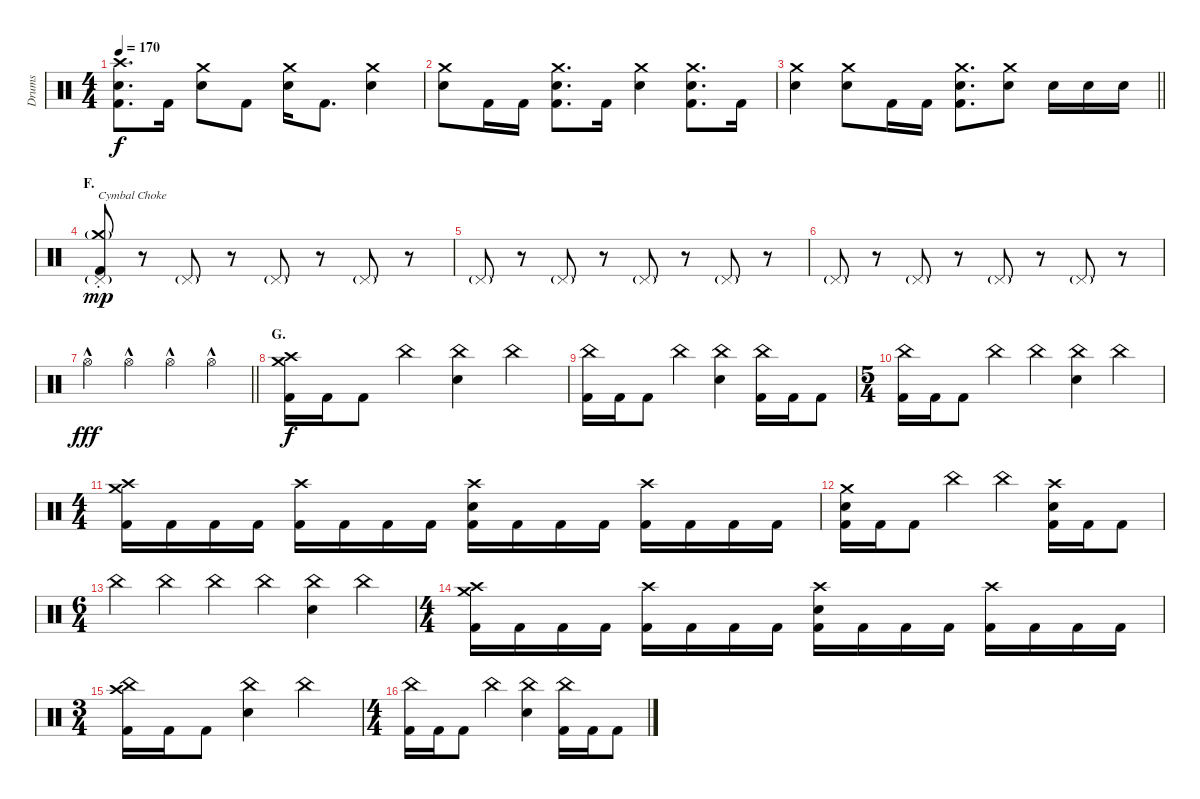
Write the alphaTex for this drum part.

\track ("Drums" "Drums") {instrument percussion}
\staff {score}
\articulation defaults
\ts (4 4)
\tempo 170
\clef neutral
\ks c
("Crash high (hit)" "Electric Snare (hit)" "Kick (hit) 2").8{d dy f} "Kick (hit) 2".16 ("Crash medium (hit)" "Electric Snare (hit)").8 "Kick (hit) 2".8 ("Crash medium (hit)" "Electric Snare (hit)").16 "Kick (hit) 2".8{d} ("Crash medium (hit)" "Electric Snare (hit)").4 |
("Crash medium (hit)" "Electric Snare (hit)").8 "Kick (hit) 2".16 "Kick (hit) 2".16 ("Crash medium (hit)" "Electric Snare (hit)" "Kick (hit) 2").8{d} "Kick (hit) 2".16 ("Crash medium (hit)" "Electric Snare (hit)").4 ("Crash medium (hit)" "Electric Snare (hit)" "Kick (hit) 2").8{d} "Kick (hit) 2".16 |
\barLineRight lightlight
("Crash medium (hit)" "Electric Snare (hit)").4 ("Crash medium (hit)" "Electric Snare (hit)").8 "Kick (hit) 2".16 "Kick (hit) 2".16 ("Crash medium (hit)" "Electric Snare (hit)" "Kick (hit) 2").8{d} ("Crash medium (hit)" "Electric Snare (hit)").8 "Electric Snare (hit)".16 "Electric Snare (hit)".16 "Electric Snare (hit)".16 |
\section ("" "F.")
("Crash medium (hit)"{g st} "Pedal Hi-Hat (hit)"{g} "Kick (hit) 2").8{txt "Cymbal Choke" dy mp} r.8 "Pedal Hi-Hat (hit)"{g}.8 r.8 "Pedal Hi-Hat (hit)"{g}.8 r.8 "Pedal Hi-Hat (hit)"{g}.8 r.8 |
"Pedal Hi-Hat (hit)"{g}.8 r.8 "Pedal Hi-Hat (hit)"{g}.8 r.8 "Pedal Hi-Hat (hit)"{g}.8 r.8 "Pedal Hi-Hat (hit)"{g}.8 r.8 |
"Pedal Hi-Hat (hit)"{g}.8 r.8 "Pedal Hi-Hat (hit)"{g}.8 r.8 "Pedal Hi-Hat (hit)"{g}.8 r.8 "Pedal Hi-Hat (hit)"{g}.8 r.8 |
\barLineRight lightlight "Hi-Hat (open)"{hac}.4{dy fff} "Hi-Hat (open)"{hac}.4 "Hi-Hat (open)"{hac}.4 "Hi-Hat (open)"{hac}.4
|
\section ("" "G.")
("Crash medium (hit)" "Crash high (hit)" "Kick (hit) 2").16{dy f} "Kick (hit) 2".16 "Kick (hit) 2".8 "China (hit)".4 ("China (hit)" "Electric Snare (hit)").4 "China (hit)".4 |
("China (hit)" "Kick (hit) 2").16 "Kick (hit) 2".16 "Kick (hit) 2".8 "China (hit)".4 ("China (hit)" "Electric Snare (hit)").4 ("China (hit)" "Kick (hit) 2").16 "Kick (hit) 2".16 "Kick (hit) 2".8 |
\ts (5 4)
("China (hit)" "Kick (hit) 2").16 "Kick (hit) 2".16 "Kick (hit) 2".8 "China (hit)".4 "China (hit)".4 ("China (hit)" "Electric Snare (hit)").4 "China (hit)".4 |
\ts (4 4)
("Crash medium (hit)" "Crash high (hit)" "Kick (hit) 2").16 "Kick (hit) 2".16 "Kick (hit) 2".16 "Kick (hit) 2".16 ("Crash high (hit)" "Kick (hit) 2").16 "Kick (hit) 2".16 "Kick (hit) 2".16 "Kick (hit) 2".16 ("Crash high (hit)" "Electric Snare (hit)" "Kick (hit) 2").16 "Kick (hit) 2".16 "Kick (hit) 2".16 "Kick (hit) 2".16 ("Crash high (hit)" "Kick (hit) 2").16 "Kick (hit) 2".16 "Kick (hit) 2".16 "Kick (hit) 2".16 |
("Crash medium (hit)" "Electric Snare (hit)" "Kick (hit) 2").16 "Kick (hit) 2".16 "Kick (hit) 2".8 "China (hit)".4 "China (hit)".4 ("Crash high (hit)" "Electric Snare (hit)" "Kick (hit) 2").16 "Kick (hit) 2".16 "Kick (hit) 2".8 |
\ts (6 4)
"China (hit)".4 "China (hit)".4 "China (hit)".4 "China (hit)".4 ("China (hit)" "Electric Snare (hit)").4 "China (hit)".4 |
\ts (4 4)
("Crash medium (hit)" "Crash high (hit)" "Kick (hit) 2").16 "Kick (hit) 2".16 "Kick (hit) 2".16 "Kick (hit) 2".16 ("Crash high (hit)" "Kick (hit) 2").16 "Kick (hit) 2".16 "Kick (hit) 2".16 "Kick (hit) 2".16 ("Crash high (hit)" "Electric Snare (hit)" "Kick (hit) 2").16 "Kick (hit) 2".16 "Kick (hit) 2".16 "Kick (hit) 2".16 ("Crash high (hit)" "Kick (hit) 2").16 "Kick (hit) 2".16 "Kick (hit) 2".16 "Kick (hit) 2".16 |
\ts (3 4)
("China (hit)" "Crash high (hit)" "Kick (hit) 2").16 "Kick (hit) 2".16 "Kick (hit) 2".8 ("China (hit)" "Electric Snare (hit)").4 "China (hit)".4 |
\ts (4 4)
("China (hit)" "Kick (hit) 2").16 "Kick (hit) 2".16 "Kick (hit) 2".8 "China (hit)".4 ("China (hit)" "Electric Snare (hit)").4 ("China (hit)" "Kick (hit) 2").16 "Kick (hit) 2".16 "Kick (hit) 2".8
